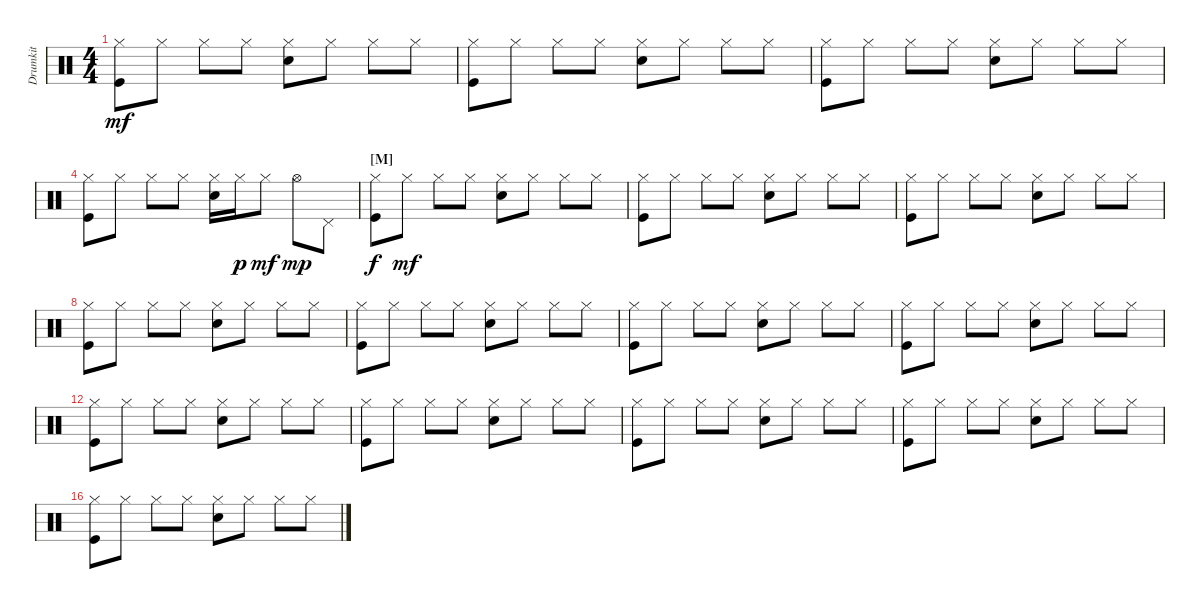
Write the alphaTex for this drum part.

\bracketExtendMode groupsimilarinstruments
\multiTrackTrackNamePolicy hidden
\firstSystemTrackNameMode fullname
\otherSystemsTrackNameMode fullname
\otherSystemsTrackNameOrientation horizontal
\defaultBarNumberDisplay FirstOfSystem
\track ("Drumkit" "Drums") {multiBarRest instrument percussion}
\staff {score}
\articulation defaults
\ts (4 4)
\tempo (150 hide)
\clef neutral
\ks c
("Hi-Hat (closed)" "Kick (hit)").8{dy mf} "Hi-Hat (closed)".8 "Hi-Hat (closed)".8 "Hi-Hat (closed)".8 ("Hi-Hat (closed)" "Snare (hit) 2").8 "Hi-Hat (closed)".8 "Hi-Hat (closed)".8 "Hi-Hat (closed)".8 |
("Hi-Hat (closed)" "Kick (hit)").8 "Hi-Hat (closed)".8 "Hi-Hat (closed)".8 "Hi-Hat (closed)".8 ("Hi-Hat (closed)" "Snare (hit) 2").8 "Hi-Hat (closed)".8 "Hi-Hat (closed)".8 "Hi-Hat (closed)".8 |
("Hi-Hat (closed)" "Kick (hit)").8 "Hi-Hat (closed)".8 "Hi-Hat (closed)".8 "Hi-Hat (closed)".8 ("Hi-Hat (closed)" "Snare (hit) 2").8 "Hi-Hat (closed)".8 "Hi-Hat (closed)".8 "Hi-Hat (closed)".8 |
("Hi-Hat (closed)" "Kick (hit)").8 "Hi-Hat (closed)".8 "Hi-Hat (closed)".8 "Hi-Hat (closed)".8 ("Hi-Hat (closed)" "Snare (hit) 2").16 "Hi-Hat (closed)".16{dy p} "Hi-Hat (closed)".8{dy mf} "Hi-Hat (open)".8{dy mp} "Pedal Hi-Hat (hit)".8 |
\section ("M" "")
("Hi-Hat (closed)" "Kick (hit)").8{dy f} "Hi-Hat (closed)".8{dy mf} "Hi-Hat (closed)".8 "Hi-Hat (closed)".8 ("Hi-Hat (closed)" "Snare (hit) 2").8 "Hi-Hat (closed)".8 "Hi-Hat (closed)".8 "Hi-Hat (closed)".8 |
("Hi-Hat (closed)" "Kick (hit)").8 "Hi-Hat (closed)".8 "Hi-Hat (closed)".8 "Hi-Hat (closed)".8 ("Hi-Hat (closed)" "Snare (hit) 2").8 "Hi-Hat (closed)".8 "Hi-Hat (closed)".8 "Hi-Hat (closed)".8 |
("Hi-Hat (closed)" "Kick (hit)").8 "Hi-Hat (closed)".8 "Hi-Hat (closed)".8 "Hi-Hat (closed)".8 ("Hi-Hat (closed)" "Snare (hit) 2").8 "Hi-Hat (closed)".8 "Hi-Hat (closed)".8 "Hi-Hat (closed)".8 |
("Hi-Hat (closed)" "Kick (hit)").8 "Hi-Hat (closed)".8 "Hi-Hat (closed)".8 "Hi-Hat (closed)".8 ("Hi-Hat (closed)" "Snare (hit) 2").8 "Hi-Hat (closed)".8 "Hi-Hat (closed)".8 "Hi-Hat (closed)".8 |
("Hi-Hat (closed)" "Kick (hit)").8 "Hi-Hat (closed)".8 "Hi-Hat (closed)".8 "Hi-Hat (closed)".8 ("Hi-Hat (closed)" "Snare (hit) 2").8 "Hi-Hat (closed)".8 "Hi-Hat (closed)".8 "Hi-Hat (closed)".8 |
("Hi-Hat (closed)" "Kick (hit)").8 "Hi-Hat (closed)".8 "Hi-Hat (closed)".8 "Hi-Hat (closed)".8 ("Hi-Hat (closed)" "Snare (hit) 2").8 "Hi-Hat (closed)".8 "Hi-Hat (closed)".8 "Hi-Hat (closed)".8 |
("Hi-Hat (closed)" "Kick (hit)").8 "Hi-Hat (closed)".8 "Hi-Hat (closed)".8 "Hi-Hat (closed)".8 ("Hi-Hat (closed)" "Snare (hit) 2").8 "Hi-Hat (closed)".8 "Hi-Hat (closed)".8 "Hi-Hat (closed)".8 |
("Hi-Hat (closed)" "Kick (hit)").8 "Hi-Hat (closed)".8 "Hi-Hat (closed)".8 "Hi-Hat (closed)".8 ("Hi-Hat (closed)" "Snare (hit) 2").8 "Hi-Hat (closed)".8 "Hi-Hat (closed)".8 "Hi-Hat (closed)".8 |
("Hi-Hat (closed)" "Kick (hit)").8 "Hi-Hat (closed)".8 "Hi-Hat (closed)".8 "Hi-Hat (closed)".8 ("Hi-Hat (closed)" "Snare (hit) 2").8 "Hi-Hat (closed)".8 "Hi-Hat (closed)".8 "Hi-Hat (closed)".8 |
("Hi-Hat (closed)" "Kick (hit)").8 "Hi-Hat (closed)".8 "Hi-Hat (closed)".8 "Hi-Hat (closed)".8 ("Hi-Hat (closed)" "Snare (hit) 2").8 "Hi-Hat (closed)".8 "Hi-Hat (closed)".8 "Hi-Hat (closed)".8 |
("Hi-Hat (closed)" "Kick (hit)").8 "Hi-Hat (closed)".8 "Hi-Hat (closed)".8 "Hi-Hat (closed)".8 ("Hi-Hat (closed)" "Snare (hit) 2").8 "Hi-Hat (closed)".8 "Hi-Hat (closed)".8 "Hi-Hat (closed)".8 |
("Hi-Hat (closed)" "Kick (hit)").8 "Hi-Hat (closed)".8 "Hi-Hat (closed)".8 "Hi-Hat (closed)".8 ("Hi-Hat (closed)" "Snare (hit) 2").8 "Hi-Hat (closed)".8 "Hi-Hat (closed)".8 "Hi-Hat (closed)".8
